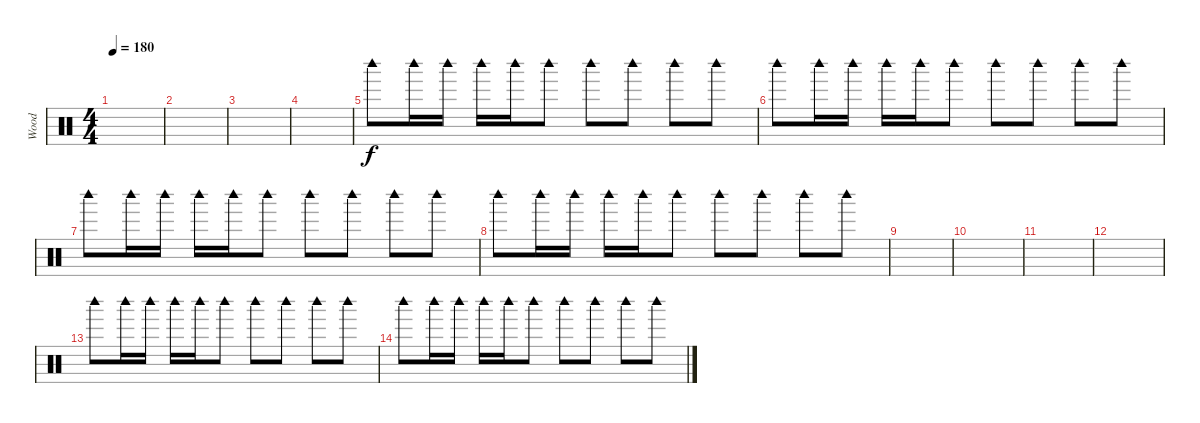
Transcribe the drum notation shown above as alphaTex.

\track ("Wood" "Wood") {instrument percussion}
\staff {score}
\articulation defaults
\ts (4 4)
\tempo 180
\clef neutral
\ks c
|
|
|
|
"Woodblock high (hit)".8 "Woodblock high (hit)".16 "Woodblock high (hit)".16 "Woodblock high (hit)".16 "Woodblock high (hit)".16 "Woodblock high (hit)".8 "Woodblock high (hit)".8 "Woodblock high (hit)".8 "Woodblock high (hit)".8 "Woodblock high (hit)".8 |
"Woodblock high (hit)".8 "Woodblock high (hit)".16 "Woodblock high (hit)".16 "Woodblock high (hit)".16 "Woodblock high (hit)".16 "Woodblock high (hit)".8 "Woodblock high (hit)".8 "Woodblock high (hit)".8 "Woodblock high (hit)".8 "Woodblock high (hit)".8 |
"Woodblock high (hit)".8 "Woodblock high (hit)".16 "Woodblock high (hit)".16 "Woodblock high (hit)".16 "Woodblock high (hit)".16 "Woodblock high (hit)".8 "Woodblock high (hit)".8 "Woodblock high (hit)".8 "Woodblock high (hit)".8 "Woodblock high (hit)".8 |
"Woodblock high (hit)".8 "Woodblock high (hit)".16 "Woodblock high (hit)".16 "Woodblock high (hit)".16 "Woodblock high (hit)".16 "Woodblock high (hit)".8 "Woodblock high (hit)".8 "Woodblock high (hit)".8 "Woodblock high (hit)".8 "Woodblock high (hit)".8 |
|
|
|
|
"Woodblock high (hit)".8 "Woodblock high (hit)".16 "Woodblock high (hit)".16 "Woodblock high (hit)".16 "Woodblock high (hit)".16 "Woodblock high (hit)".8 "Woodblock high (hit)".8 "Woodblock high (hit)".8 "Woodblock high (hit)".8 "Woodblock high (hit)".8 |
"Woodblock high (hit)".8 "Woodblock high (hit)".16 "Woodblock high (hit)".16 "Woodblock high (hit)".16 "Woodblock high (hit)".16 "Woodblock high (hit)".8 "Woodblock high (hit)".8 "Woodblock high (hit)".8 "Woodblock high (hit)".8 "Woodblock high (hit)".8
